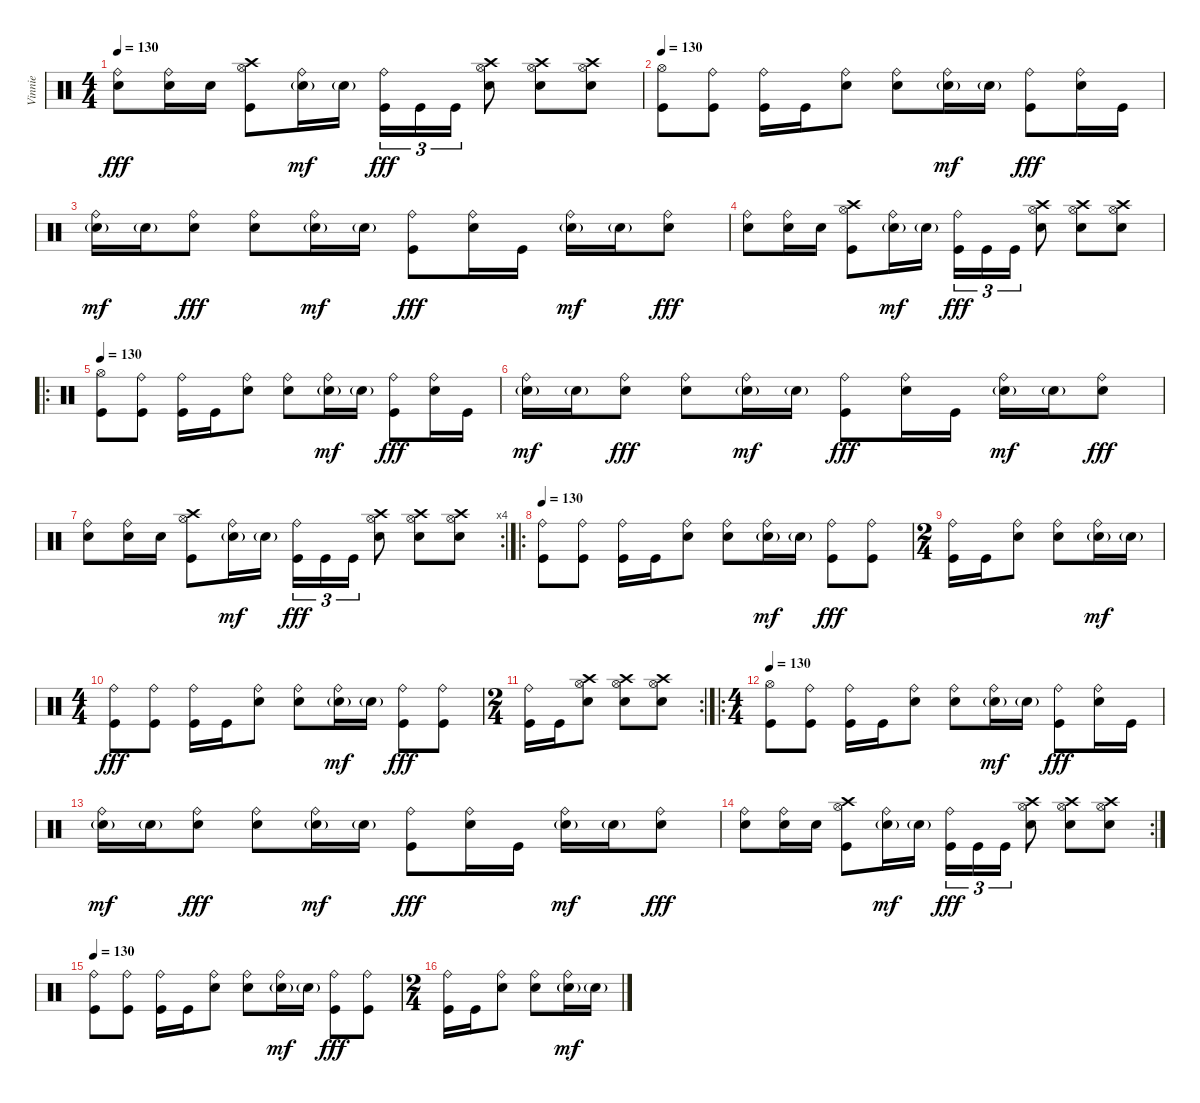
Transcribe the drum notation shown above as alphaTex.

\track ("Vinnie" "Vinnie") {instrument percussion}
\staff {score}
\articulation defaults
\ts (4 4)
\tempo 130
\clef neutral
\ks c
("Electric Snare (hit)" "Ride (bell)").8{dy fff} ("Electric Snare (hit)" "Ride (bell)").16 "Electric Snare (hit)".16 ("Kick (hit)" "Crash high (hit)" "Hi-Hat (open)").8 ("Electric Snare (hit)"{g} "Ride (bell)").16{dy mf} "Electric Snare (hit)"{g}.16 ("Kick (hit)" "Ride (bell)").16{tu (3 2) dy fff} "Kick (hit)".16{tu (3 2)} "Kick (hit)".16{tu (3 2)} ("Electric Snare (hit)" "Crash high (hit)" "Hi-Hat (open)").8 ("Electric Snare (hit)" "Crash high (hit)" "Hi-Hat (open)").8 ("Electric Snare (hit)" "Crash high (hit)" "Hi-Hat (open)").8 |
\tempo 130
("Kick (hit)" "Hi-Hat (open)").8 ("Kick (hit)" "Ride (bell)").8 ("Kick (hit)" "Ride (bell)").16 "Kick (hit)".16 ("Electric Snare (hit)" "Ride (bell)").8 ("Electric Snare (hit)" "Ride (bell)").8 ("Electric Snare (hit)"{g} "Ride (bell)").16{dy mf} "Electric Snare (hit)"{g}.16 ("Kick (hit)" "Ride (bell)").8{dy fff} ("Electric Snare (hit)" "Ride (bell)").16 "Kick (hit)".16 |
("Electric Snare (hit)"{g} "Ride (bell)").16{dy mf} "Electric Snare (hit)"{g}.16 ("Electric Snare (hit)" "Ride (bell)").8{dy fff} ("Electric Snare (hit)" "Ride (bell)").8 ("Electric Snare (hit)"{g} "Ride (bell)").16{dy mf} "Electric Snare (hit)"{g}.16 ("Kick (hit)" "Ride (bell)").8{dy fff} ("Electric Snare (hit)" "Ride (bell)").16 "Kick (hit)".16 ("Electric Snare (hit)"{g} "Ride (bell)").16{dy mf} "Electric Snare (hit)"{g}.16 ("Electric Snare (hit)" "Ride (bell)").8{dy fff} |
("Electric Snare (hit)" "Ride (bell)").8 ("Electric Snare (hit)" "Ride (bell)").16 "Electric Snare (hit)".16 ("Kick (hit)" "Crash high (hit)" "Hi-Hat (open)").8 ("Electric Snare (hit)"{g} "Ride (bell)").16{dy mf} "Electric Snare (hit)"{g}.16 ("Kick (hit)" "Ride (bell)").16{tu (3 2) dy fff} "Kick (hit)".16{tu (3 2)} "Kick (hit)".16{tu (3 2)} ("Electric Snare (hit)" "Crash high (hit)" "Hi-Hat (open)").8 ("Electric Snare (hit)" "Crash high (hit)" "Hi-Hat (open)").8 ("Electric Snare (hit)" "Crash high (hit)" "Hi-Hat (open)").8 |
\ro
\tempo 130
("Kick (hit)" "Hi-Hat (open)").8 ("Kick (hit)" "Ride (bell)").8 ("Kick (hit)" "Ride (bell)").16 "Kick (hit)".16 ("Electric Snare (hit)" "Ride (bell)").8 ("Electric Snare (hit)" "Ride (bell)").8 ("Electric Snare (hit)"{g} "Ride (bell)").16{dy mf} "Electric Snare (hit)"{g}.16 ("Kick (hit)" "Ride (bell)").8{dy fff} ("Electric Snare (hit)" "Ride (bell)").16 "Kick (hit)".16 |
("Electric Snare (hit)"{g} "Ride (bell)").16{dy mf} "Electric Snare (hit)"{g}.16 ("Electric Snare (hit)" "Ride (bell)").8{dy fff} ("Electric Snare (hit)" "Ride (bell)").8 ("Electric Snare (hit)"{g} "Ride (bell)").16{dy mf} "Electric Snare (hit)"{g}.16 ("Kick (hit)" "Ride (bell)").8{dy fff} ("Electric Snare (hit)" "Ride (bell)").16 "Kick (hit)".16 ("Electric Snare (hit)"{g} "Ride (bell)").16{dy mf} "Electric Snare (hit)"{g}.16 ("Electric Snare (hit)" "Ride (bell)").8{dy fff} |
\rc 4
("Electric Snare (hit)" "Ride (bell)").8 ("Electric Snare (hit)" "Ride (bell)").16 "Electric Snare (hit)".16 ("Kick (hit)" "Crash high (hit)" "Hi-Hat (open)").8 ("Electric Snare (hit)"{g} "Ride (bell)").16{dy mf} "Electric Snare (hit)"{g}.16 ("Kick (hit)" "Ride (bell)").16{tu (3 2) dy fff} "Kick (hit)".16{tu (3 2)} "Kick (hit)".16{tu (3 2)} ("Electric Snare (hit)" "Crash high (hit)" "Hi-Hat (open)").8 ("Electric Snare (hit)" "Crash high (hit)" "Hi-Hat (open)").8 ("Electric Snare (hit)" "Crash high (hit)" "Hi-Hat (open)").8 |
\ro
\tempo 130
("Kick (hit)" "Ride (bell)").8 ("Kick (hit)" "Ride (bell)").8 ("Kick (hit)" "Ride (bell)").16 "Kick (hit)".16 ("Electric Snare (hit)" "Ride (bell)").8 ("Electric Snare (hit)" "Ride (bell)").8 ("Electric Snare (hit)"{g} "Ride (bell)").16{dy mf} "Electric Snare (hit)"{g}.16 ("Kick (hit)" "Ride (bell)").8{dy fff} ("Kick (hit)" "Ride (bell)").8 |
\ts (2 4)
("Kick (hit)" "Ride (bell)").16 "Kick (hit)".16 ("Electric Snare (hit)" "Ride (bell)").8 ("Electric Snare (hit)" "Ride (bell)").8 ("Electric Snare (hit)"{g} "Ride (bell)").16{dy mf} "Electric Snare (hit)"{g}.16 |
\ts (4 4)
("Kick (hit)" "Ride (bell)").8{dy fff} ("Kick (hit)" "Ride (bell)").8 ("Kick (hit)" "Ride (bell)").16 "Kick (hit)".16 ("Electric Snare (hit)" "Ride (bell)").8 ("Electric Snare (hit)" "Ride (bell)").8 ("Electric Snare (hit)"{g} "Ride (bell)").16{dy mf} "Electric Snare (hit)"{g}.16 ("Kick (hit)" "Ride (bell)").8{dy fff} ("Kick (hit)" "Ride (bell)").8 |
\rc 2
\ts (2 4)
("Kick (hit)" "Ride (bell)").16 "Kick (hit)".16 ("Electric Snare (hit)" "Crash high (hit)" "Hi-Hat (open)").8 ("Electric Snare (hit)" "Crash high (hit)" "Hi-Hat (open)").8 ("Electric Snare (hit)" "Crash high (hit)" "Hi-Hat (open)").8 |
\ro
\ts (4 4)
\tempo 130
("Kick (hit)" "Hi-Hat (open)").8 ("Kick (hit)" "Ride (bell)").8 ("Kick (hit)" "Ride (bell)").16 "Kick (hit)".16 ("Electric Snare (hit)" "Ride (bell)").8 ("Electric Snare (hit)" "Ride (bell)").8 ("Electric Snare (hit)"{g} "Ride (bell)").16{dy mf} "Electric Snare (hit)"{g}.16 ("Kick (hit)" "Ride (bell)").8{dy fff} ("Electric Snare (hit)" "Ride (bell)").16 "Kick (hit)".16 |
("Electric Snare (hit)"{g} "Ride (bell)").16{dy mf} "Electric Snare (hit)"{g}.16 ("Electric Snare (hit)" "Ride (bell)").8{dy fff} ("Electric Snare (hit)" "Ride (bell)").8 ("Electric Snare (hit)"{g} "Ride (bell)").16{dy mf} "Electric Snare (hit)"{g}.16 ("Kick (hit)" "Ride (bell)").8{dy fff} ("Electric Snare (hit)" "Ride (bell)").16 "Kick (hit)".16 ("Electric Snare (hit)"{g} "Ride (bell)").16{dy mf} "Electric Snare (hit)"{g}.16 ("Electric Snare (hit)" "Ride (bell)").8{dy fff} |
\rc 2
("Electric Snare (hit)" "Ride (bell)").8 ("Electric Snare (hit)" "Ride (bell)").16 "Electric Snare (hit)".16 ("Kick (hit)" "Crash high (hit)" "Hi-Hat (open)").8 ("Electric Snare (hit)"{g} "Ride (bell)").16{dy mf} "Electric Snare (hit)"{g}.16 ("Kick (hit)" "Ride (bell)").16{tu (3 2) dy fff} "Kick (hit)".16{tu (3 2)} "Kick (hit)".16{tu (3 2)} ("Electric Snare (hit)" "Crash high (hit)" "Hi-Hat (open)").8 ("Electric Snare (hit)" "Crash high (hit)" "Hi-Hat (open)").8 ("Electric Snare (hit)" "Crash high (hit)" "Hi-Hat (open)").8 |
\tempo 130
("Kick (hit)" "Ride (bell)").8 ("Kick (hit)" "Ride (bell)").8 ("Kick (hit)" "Ride (bell)").16 "Kick (hit)".16 ("Electric Snare (hit)" "Ride (bell)").8 ("Electric Snare (hit)" "Ride (bell)").8 ("Electric Snare (hit)"{g} "Ride (bell)").16{dy mf} "Electric Snare (hit)"{g}.16 ("Kick (hit)" "Ride (bell)").8{dy fff} ("Kick (hit)" "Ride (bell)").8 |
\ts (2 4)
("Kick (hit)" "Ride (bell)").16 "Kick (hit)".16 ("Electric Snare (hit)" "Ride (bell)").8 ("Electric Snare (hit)" "Ride (bell)").8 ("Electric Snare (hit)"{g} "Ride (bell)").16{dy mf} "Electric Snare (hit)"{g}.16
